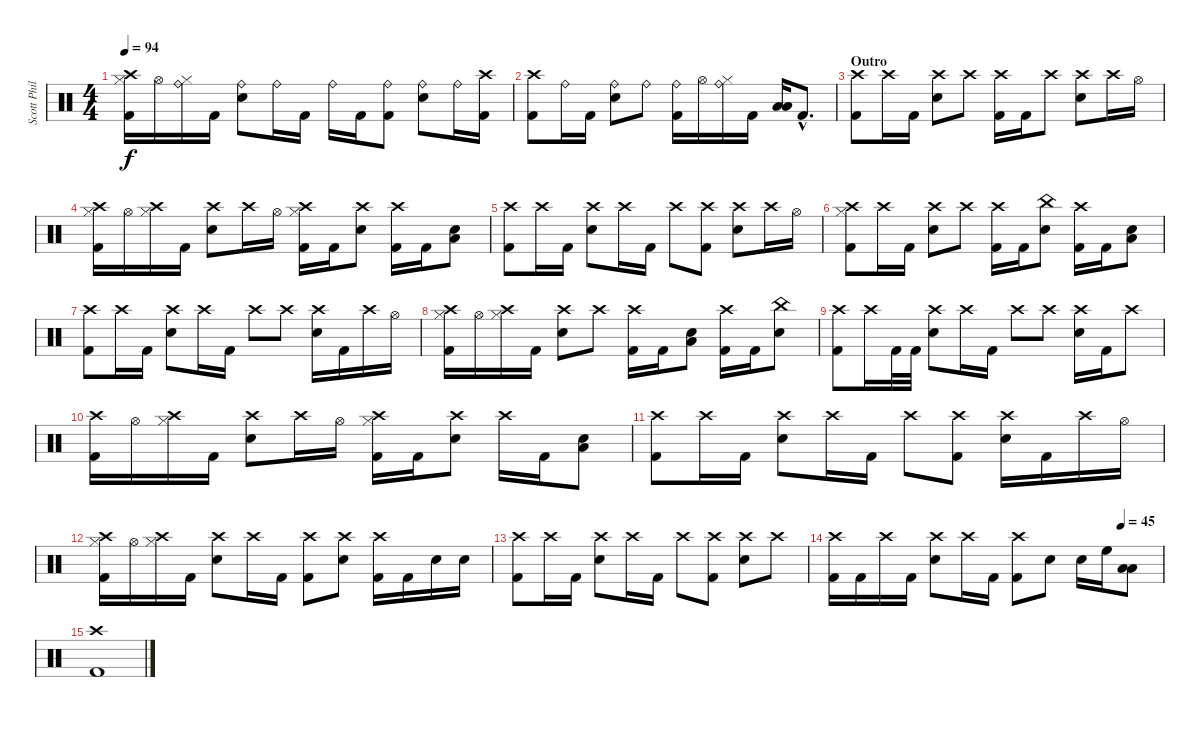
\track ("Scott Phillips" "Scott Phil") {instrument percussion}
\staff {score}
\articulation defaults
\ts (4 4)
\tempo 94
\clef neutral
\ks c
("Crash high (hit)" "Hi-Hat (closed)" "Kick (hit) 2").16{dy f} "Hi-Hat (open)".16 ("Ride (bell)" "Hi-Hat (closed)").16 "Kick (hit) 2".16 ("Ride (bell)" "Electric Snare (hit)").8 "Ride (bell)".16 "Kick (hit) 2".16 "Ride (bell)".16 "Kick (hit) 2".16 ("Ride (bell)" "Kick (hit) 2").8 ("Ride (bell)" "Electric Snare (hit)").8 "Ride (bell)".16 ("Crash high (hit)" "Kick (hit) 2").16 |
("Crash high (hit)" "Kick (hit) 2").8 "Ride (bell)".16 "Kick (hit) 2".16 ("Ride (bell)" "Electric Snare (hit)").8 "Ride (bell)".8 ("Ride (bell)" "Kick (hit) 2").16 "Hi-Hat (open)".16 ("Ride (bell)" "Hi-Hat (closed)").16 "Kick (hit) 2".16 ("Low Tom (hit)" "Low Floor Tom (hit)").16 "Kick (hit) 2"{hac}.8{d} |
\section ("" "Outro")
("Crash high (hit)" "Kick (hit) 2").8 "Crash high (hit)".16 "Kick (hit) 2".16 ("Crash high (hit)" "Electric Snare (hit)").8 "Crash high (hit)".8 ("Crash high (hit)" "Kick (hit) 2").16 "Kick (hit) 2".16 "Crash high (hit)".8 ("Crash high (hit)" "Electric Snare (hit)").8 "Crash high (hit)".16 "Hi-Hat (open)".16 |
("Crash high (hit)" "Hi-Hat (closed)" "Kick (hit) 2").16 "Hi-Hat (open)".16 ("Crash high (hit)" "Hi-Hat (closed)").16 "Kick (hit) 2".16 ("Crash high (hit)" "Electric Snare (hit)").8 "Crash high (hit)".16 "Hi-Hat (open)".16 ("Crash high (hit)" "Hi-Hat (closed)" "Kick (hit) 2").16 "Kick (hit) 2".16 ("Crash high (hit)" "Electric Snare (hit)").8 ("Crash high (hit)" "Kick (hit) 2").16 "Kick (hit) 2".16 ("Electric Snare (hit)" "Low Floor Tom (hit)").8 |
("Crash high (hit)" "Kick (hit) 2").8 "Crash high (hit)".16 "Kick (hit) 2".16 ("Crash high (hit)" "Electric Snare (hit)").8 "Crash high (hit)".16 "Kick (hit) 2".16 "Crash high (hit)".8 ("Crash high (hit)" "Kick (hit) 2").8 ("Crash high (hit)" "Electric Snare (hit)").8 "Crash high (hit)".16 "Hi-Hat (open)".16 |
("Crash high (hit)" "Hi-Hat (closed)" "Kick (hit) 2").8 "Crash high (hit)".16 "Kick (hit) 2".16 ("Crash high (hit)" "Electric Snare (hit)").8 "Crash high (hit)".8 ("Crash high (hit)" "Kick (hit) 2").16 "Kick (hit) 2".16 ("China (hit)" "Electric Snare (hit)").8 ("Crash high (hit)" "Kick (hit) 2").16 "Kick (hit) 2".16 ("Electric Snare (hit)" "Low Floor Tom (hit)").8 |
("Crash high (hit)" "Kick (hit) 2").8 "Crash high (hit)".16 "Kick (hit) 2".16 ("Crash high (hit)" "Electric Snare (hit)").8 "Crash high (hit)".16 "Kick (hit) 2".16 "Crash high (hit)".8 "Crash high (hit)".8 ("Crash high (hit)" "Electric Snare (hit)").16 "Kick (hit) 2".16 "Crash high (hit)".16 "Hi-Hat (open)".16 |
("Crash high (hit)" "Hi-Hat (closed)" "Kick (hit) 2").16 "Hi-Hat (open)".16 ("Crash high (hit)" "Hi-Hat (closed)").16 "Kick (hit) 2".16 ("Crash high (hit)" "Electric Snare (hit)").8 "Crash high (hit)".8 ("Crash high (hit)" "Kick (hit) 2").16 "Kick (hit) 2".16 ("Electric Snare (hit)" "Low Floor Tom (hit)").8 ("Crash high (hit)" "Kick (hit) 2").16 "Kick (hit) 2".16 ("China (hit)" "Electric Snare (hit)").8 |
("Crash high (hit)" "Kick (hit) 2").8 "Crash high (hit)".16 "Kick (hit) 2".32 "Kick (hit) 2".32 ("Crash high (hit)" "Electric Snare (hit)").8 "Crash high (hit)".16 "Kick (hit) 2".16 "Crash high (hit)".8 "Crash high (hit)".8 ("Crash high (hit)" "Electric Snare (hit)").16 "Kick (hit) 2".16 "Crash high (hit)".8 |
("Crash high (hit)" "Kick (hit) 2").16 "Hi-Hat (open)".16 ("Crash high (hit)" "Hi-Hat (closed)").16 "Kick (hit) 2".16 ("Crash high (hit)" "Electric Snare (hit)").8 "Crash high (hit)".16 "Hi-Hat (open)".16 ("Crash high (hit)" "Hi-Hat (closed)" "Kick (hit) 2").16 "Kick (hit) 2".16 ("Crash high (hit)" "Electric Snare (hit)").8 "Crash high (hit)".16 "Kick (hit) 2".16 ("Electric Snare (hit)" "Low Floor Tom (hit)").8 |
("Crash high (hit)" "Kick (hit) 2").8 "Crash high (hit)".16 "Kick (hit) 2".16 ("Crash high (hit)" "Electric Snare (hit)").8 "Crash high (hit)".16 "Kick (hit) 2".16 "Crash high (hit)".8 ("Crash high (hit)" "Kick (hit) 2").8 ("Crash high (hit)" "Electric Snare (hit)").16 "Kick (hit) 2".16 "Crash high (hit)".16 "Hi-Hat (open)".16 |
("Crash high (hit)" "Hi-Hat (closed)" "Kick (hit) 2").16 "Hi-Hat (open)".16 ("Crash high (hit)" "Hi-Hat (closed)").16 "Kick (hit) 2".16 ("Crash high (hit)" "Electric Snare (hit)").8 "Crash high (hit)".16 "Kick (hit) 2".16 ("Crash high (hit)" "Kick (hit) 2").8 ("Crash high (hit)" "Electric Snare (hit)").8 ("Crash high (hit)" "Kick (hit) 2").16 "Kick (hit) 2".16 "Electric Snare (hit)".16 "Electric Snare (hit)".16 |
("Crash high (hit)" "Kick (hit) 2").8 "Crash high (hit)".16 "Kick (hit) 2".16 ("Crash high (hit)" "Electric Snare (hit)").8 "Crash high (hit)".16 "Kick (hit) 2".16 "Crash high (hit)".8 ("Crash high (hit)" "Kick (hit) 2").8 ("Crash high (hit)" "Electric Snare (hit)").8 "Crash high (hit)".8 |
\tempo (45 0.875)
("Crash high (hit)" "Kick (hit) 2").16 "Kick (hit) 2".16 "Crash high (hit)".16 "Kick (hit) 2".16 ("Crash high (hit)" "Electric Snare (hit)").8 "Crash high (hit)".16 "Kick (hit) 2".16 ("Crash high (hit)" "Kick (hit) 2").8 "Electric Snare (hit)".8 "Electric Snare (hit)".16 "High Floor Tom (hit)".16 ("Low Tom (hit)" "Low Floor Tom (hit)").8 |
("Crash high (hit)" "Kick (hit) 2").1
